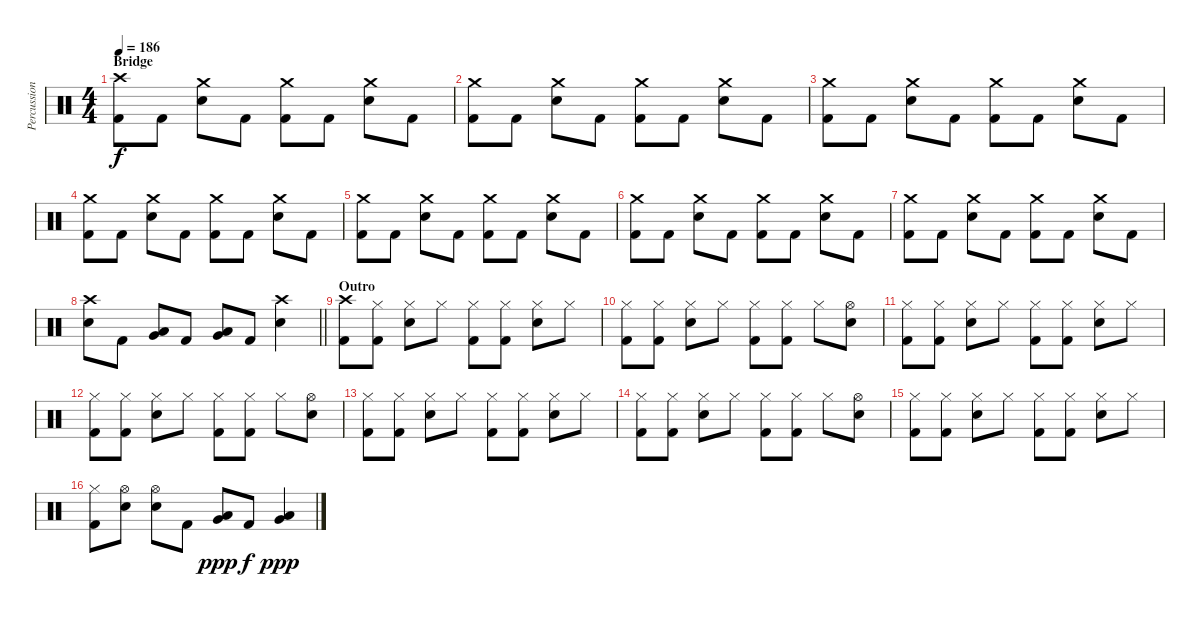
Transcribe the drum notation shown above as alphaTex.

\track ("Percussion" "Percussion") {instrument percussion}
\staff {score}
\articulation defaults
\ts (4 4)
\section ("" "Bridge")
\tempo 186
\clef neutral
\ks c
("Crash high (hit)" "Kick (hit) 2").8{dy f} "Kick (hit) 2".8 ("Crash medium (hit)" "Electric Snare (hit)").8 "Kick (hit) 2".8 ("Crash medium (hit)" "Kick (hit) 2").8 "Kick (hit) 2".8 ("Crash medium (hit)" "Electric Snare (hit)").8 "Kick (hit) 2".8 |
("Crash medium (hit)" "Kick (hit) 2").8 "Kick (hit) 2".8 ("Crash medium (hit)" "Electric Snare (hit)").8 "Kick (hit) 2".8 ("Crash medium (hit)" "Kick (hit) 2").8 "Kick (hit) 2".8 ("Crash medium (hit)" "Electric Snare (hit)").8 "Kick (hit) 2".8 |
("Crash medium (hit)" "Kick (hit) 2").8 "Kick (hit) 2".8 ("Crash medium (hit)" "Electric Snare (hit)").8 "Kick (hit) 2".8 ("Crash medium (hit)" "Kick (hit) 2").8 "Kick (hit) 2".8 ("Crash medium (hit)" "Electric Snare (hit)").8 "Kick (hit) 2".8 |
("Crash medium (hit)" "Kick (hit) 2").8 "Kick (hit) 2".8 ("Crash medium (hit)" "Electric Snare (hit)").8 "Kick (hit) 2".8 ("Crash medium (hit)" "Kick (hit) 2").8 "Kick (hit) 2".8 ("Crash medium (hit)" "Electric Snare (hit)").8 "Kick (hit) 2".8 |
("Crash medium (hit)" "Kick (hit) 2").8 "Kick (hit) 2".8 ("Crash medium (hit)" "Electric Snare (hit)").8 "Kick (hit) 2".8 ("Crash medium (hit)" "Kick (hit) 2").8 "Kick (hit) 2".8 ("Crash medium (hit)" "Electric Snare (hit)").8 "Kick (hit) 2".8 |
("Crash medium (hit)" "Kick (hit) 2").8 "Kick (hit) 2".8 ("Crash medium (hit)" "Electric Snare (hit)").8 "Kick (hit) 2".8 ("Crash medium (hit)" "Kick (hit) 2").8 "Kick (hit) 2".8 ("Crash medium (hit)" "Electric Snare (hit)").8 "Kick (hit) 2".8 |
("Crash medium (hit)" "Kick (hit) 2").8 "Kick (hit) 2".8 ("Crash medium (hit)" "Electric Snare (hit)").8 "Kick (hit) 2".8 ("Crash medium (hit)" "Kick (hit) 2").8 "Kick (hit) 2".8 ("Crash medium (hit)" "Electric Snare (hit)").8 "Kick (hit) 2".8 |
\barLineRight lightlight
("Crash high (hit)" "Electric Snare (hit)").8 "Kick (hit) 2".8 ("Low Tom (hit)" "Very Low Tom (hit)").8 "Kick (hit) 2".8 ("Very Low Tom (hit)" "Low Floor Tom (hit)").8 "Kick (hit) 2".8 ("Crash high (hit)" "Electric Snare (hit)").4 |
\section ("" "Outro")
("Crash high (hit)" "Kick (hit) 2").8 ("Hi-Hat (closed)" "Kick (hit) 2").8 ("Hi-Hat (closed)" "Electric Snare (hit)").8 "Hi-Hat (closed)".8 ("Hi-Hat (closed)" "Kick (hit) 2").8 ("Hi-Hat (closed)" "Kick (hit) 2").8 ("Hi-Hat (closed)" "Electric Snare (hit)").8 "Hi-Hat (closed)".8 |
("Hi-Hat (closed)" "Kick (hit) 2").8 ("Hi-Hat (closed)" "Kick (hit) 2").8 ("Hi-Hat (closed)" "Electric Snare (hit)").8 "Hi-Hat (closed)".8 ("Hi-Hat (closed)" "Kick (hit) 2").8 ("Hi-Hat (closed)" "Kick (hit) 2").8 "Hi-Hat (closed)".8 ("Hi-Hat (open)" "Electric Snare (hit)").8 |
("Hi-Hat (closed)" "Kick (hit) 2").8 ("Hi-Hat (closed)" "Kick (hit) 2").8 ("Hi-Hat (closed)" "Electric Snare (hit)").8 "Hi-Hat (closed)".8 ("Hi-Hat (closed)" "Kick (hit) 2").8 ("Hi-Hat (closed)" "Kick (hit) 2").8 ("Hi-Hat (closed)" "Electric Snare (hit)").8 "Hi-Hat (closed)".8 |
("Hi-Hat (closed)" "Kick (hit) 2").8 ("Hi-Hat (closed)" "Kick (hit) 2").8 ("Hi-Hat (closed)" "Electric Snare (hit)").8 "Hi-Hat (closed)".8 ("Hi-Hat (closed)" "Kick (hit) 2").8 ("Hi-Hat (closed)" "Kick (hit) 2").8 "Hi-Hat (closed)".8 ("Hi-Hat (open)" "Electric Snare (hit)").8 |
("Hi-Hat (closed)" "Kick (hit) 2").8 ("Hi-Hat (closed)" "Kick (hit) 2").8 ("Hi-Hat (closed)" "Electric Snare (hit)").8 "Hi-Hat (closed)".8 ("Hi-Hat (closed)" "Kick (hit) 2").8 ("Hi-Hat (closed)" "Kick (hit) 2").8 ("Hi-Hat (closed)" "Electric Snare (hit)").8 "Hi-Hat (closed)".8 |
("Hi-Hat (closed)" "Kick (hit) 2").8 ("Hi-Hat (closed)" "Kick (hit) 2").8 ("Hi-Hat (closed)" "Electric Snare (hit)").8 "Hi-Hat (closed)".8 ("Hi-Hat (closed)" "Kick (hit) 2").8 ("Hi-Hat (closed)" "Kick (hit) 2").8 "Hi-Hat (closed)".8 ("Hi-Hat (open)" "Electric Snare (hit)").8 |
("Hi-Hat (closed)" "Kick (hit) 2").8 ("Hi-Hat (closed)" "Kick (hit) 2").8 ("Hi-Hat (closed)" "Electric Snare (hit)").8 "Hi-Hat (closed)".8 ("Hi-Hat (closed)" "Kick (hit) 2").8 ("Hi-Hat (closed)" "Kick (hit) 2").8 ("Hi-Hat (closed)" "Electric Snare (hit)").8 "Hi-Hat (closed)".8 |
("Hi-Hat (closed)" "Kick (hit) 2").8 ("Hi-Hat (open)" "Electric Snare (hit)").8 ("Hi-Hat (open)" "Electric Snare (hit)").8 "Kick (hit) 2".8 ("Very Low Tom (hit)" "Low Tom (hit)").8{dy ppp} "Kick (hit) 2".8{dy f} ("Very Low Tom (hit)" "Low Floor Tom (hit)").4{dy ppp}
